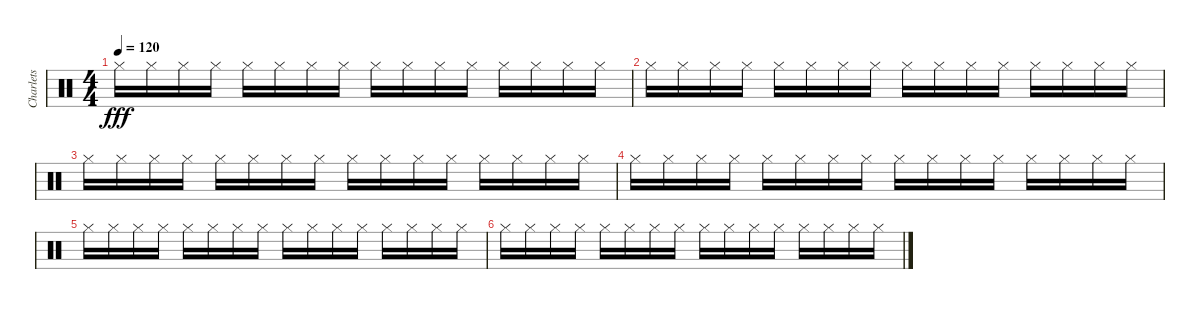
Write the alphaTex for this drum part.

\track ("Charlets" "Charlets") {instrument percussion}
\staff {score}
\articulation defaults
\ts (4 4)
\tempo 120
\clef neutral
\ks c "Hi-Hat (closed)".16{dy fff} "Hi-Hat (closed)".16 "Hi-Hat (closed)".16 "Hi-Hat (closed)".16 "Hi-Hat (closed)".16 "Hi-Hat (closed)".16 "Hi-Hat (closed)".16 "Hi-Hat (closed)".16 "Hi-Hat (closed)".16 "Hi-Hat (closed)".16 "Hi-Hat (closed)".16 "Hi-Hat (closed)".16 "Hi-Hat (closed)".16 "Hi-Hat (closed)".16 "Hi-Hat (closed)".16 "Hi-Hat (closed)".16
|
"Hi-Hat (closed)".16 "Hi-Hat (closed)".16 "Hi-Hat (closed)".16 "Hi-Hat (closed)".16 "Hi-Hat (closed)".16 "Hi-Hat (closed)".16 "Hi-Hat (closed)".16 "Hi-Hat (closed)".16 "Hi-Hat (closed)".16 "Hi-Hat (closed)".16 "Hi-Hat (closed)".16 "Hi-Hat (closed)".16 "Hi-Hat (closed)".16 "Hi-Hat (closed)".16 "Hi-Hat (closed)".16 "Hi-Hat (closed)".16 |
"Hi-Hat (closed)".16 "Hi-Hat (closed)".16 "Hi-Hat (closed)".16 "Hi-Hat (closed)".16 "Hi-Hat (closed)".16 "Hi-Hat (closed)".16 "Hi-Hat (closed)".16 "Hi-Hat (closed)".16 "Hi-Hat (closed)".16 "Hi-Hat (closed)".16 "Hi-Hat (closed)".16 "Hi-Hat (closed)".16 "Hi-Hat (closed)".16 "Hi-Hat (closed)".16 "Hi-Hat (closed)".16 "Hi-Hat (closed)".16 |
"Hi-Hat (closed)".16 "Hi-Hat (closed)".16 "Hi-Hat (closed)".16 "Hi-Hat (closed)".16 "Hi-Hat (closed)".16 "Hi-Hat (closed)".16 "Hi-Hat (closed)".16 "Hi-Hat (closed)".16 "Hi-Hat (closed)".16 "Hi-Hat (closed)".16 "Hi-Hat (closed)".16 "Hi-Hat (closed)".16 "Hi-Hat (closed)".16 "Hi-Hat (closed)".16 "Hi-Hat (closed)".16 "Hi-Hat (closed)".16 |
"Hi-Hat (closed)".16 "Hi-Hat (closed)".16 "Hi-Hat (closed)".16 "Hi-Hat (closed)".16 "Hi-Hat (closed)".16 "Hi-Hat (closed)".16 "Hi-Hat (closed)".16 "Hi-Hat (closed)".16 "Hi-Hat (closed)".16 "Hi-Hat (closed)".16 "Hi-Hat (closed)".16 "Hi-Hat (closed)".16 "Hi-Hat (closed)".16 "Hi-Hat (closed)".16 "Hi-Hat (closed)".16 "Hi-Hat (closed)".16 |
"Hi-Hat (closed)".16 "Hi-Hat (closed)".16 "Hi-Hat (closed)".16 "Hi-Hat (closed)".16 "Hi-Hat (closed)".16 "Hi-Hat (closed)".16 "Hi-Hat (closed)".16 "Hi-Hat (closed)".16 "Hi-Hat (closed)".16 "Hi-Hat (closed)".16 "Hi-Hat (closed)".16 "Hi-Hat (closed)".16 "Hi-Hat (closed)".16 "Hi-Hat (closed)".16 "Hi-Hat (closed)".16 "Hi-Hat (closed)".16
